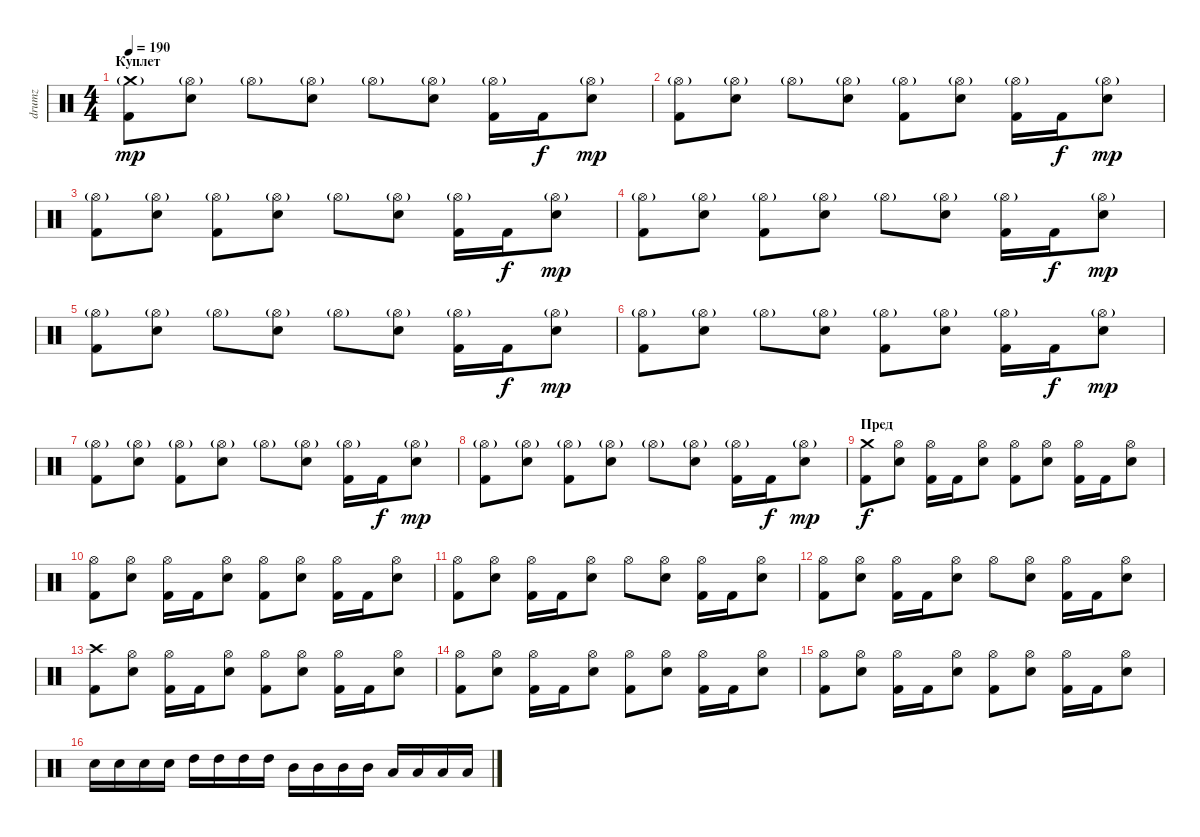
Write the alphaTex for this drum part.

\track ("drumz" "drumz") {instrument percussion}
\staff {score}
\articulation defaults
\ts (4 4)
\section ("" "Куплет")
\tempo 190
\clef neutral
\ks c
("Crash medium (hit)"{g} "Kick (hit) 2").8{dy mp} ("Hi-Hat (open)"{g} "Electric Snare (hit)").8 "Hi-Hat (open)"{g}.8 ("Hi-Hat (open)"{g} "Electric Snare (hit)").8 "Hi-Hat (open)"{g}.8 ("Hi-Hat (open)"{g} "Electric Snare (hit)").8 ("Hi-Hat (open)"{g} "Kick (hit) 2").16 "Kick (hit) 2".16{dy f} ("Hi-Hat (open)"{g} "Electric Snare (hit)").8{dy mp} |
("Hi-Hat (open)"{g} "Kick (hit) 2").8 ("Hi-Hat (open)"{g} "Electric Snare (hit)").8 "Hi-Hat (open)"{g}.8 ("Hi-Hat (open)"{g} "Electric Snare (hit)").8 ("Hi-Hat (open)"{g} "Kick (hit) 2").8 ("Hi-Hat (open)"{g} "Electric Snare (hit)").8 ("Hi-Hat (open)"{g} "Kick (hit) 2").16 "Kick (hit) 2".16{dy f} ("Hi-Hat (open)"{g} "Electric Snare (hit)").8{dy mp} |
("Hi-Hat (open)"{g} "Kick (hit) 2").8 ("Hi-Hat (open)"{g} "Electric Snare (hit)").8 ("Hi-Hat (open)"{g} "Kick (hit) 2").8 ("Hi-Hat (open)"{g} "Electric Snare (hit)").8 "Hi-Hat (open)"{g}.8 ("Hi-Hat (open)"{g} "Electric Snare (hit)").8 ("Hi-Hat (open)"{g} "Kick (hit) 2").16 "Kick (hit) 2".16{dy f} ("Hi-Hat (open)"{g} "Electric Snare (hit)").8{dy mp} |
("Hi-Hat (open)"{g} "Kick (hit) 2").8 ("Hi-Hat (open)"{g} "Electric Snare (hit)").8 ("Hi-Hat (open)"{g} "Kick (hit) 2").8 ("Hi-Hat (open)"{g} "Electric Snare (hit)").8 "Hi-Hat (open)"{g}.8 ("Hi-Hat (open)"{g} "Electric Snare (hit)").8 ("Hi-Hat (open)"{g} "Kick (hit) 2").16 "Kick (hit) 2".16{dy f} ("Hi-Hat (open)"{g} "Electric Snare (hit)").8{dy mp} |
("Hi-Hat (open)"{g} "Kick (hit) 2").8 ("Hi-Hat (open)"{g} "Electric Snare (hit)").8 "Hi-Hat (open)"{g}.8 ("Hi-Hat (open)"{g} "Electric Snare (hit)").8 "Hi-Hat (open)"{g}.8 ("Hi-Hat (open)"{g} "Electric Snare (hit)").8 ("Hi-Hat (open)"{g} "Kick (hit) 2").16 "Kick (hit) 2".16{dy f} ("Hi-Hat (open)"{g} "Electric Snare (hit)").8{dy mp} |
("Hi-Hat (open)"{g} "Kick (hit) 2").8 ("Hi-Hat (open)"{g} "Electric Snare (hit)").8 "Hi-Hat (open)"{g}.8 ("Hi-Hat (open)"{g} "Electric Snare (hit)").8 ("Hi-Hat (open)"{g} "Kick (hit) 2").8 ("Hi-Hat (open)"{g} "Electric Snare (hit)").8 ("Hi-Hat (open)"{g} "Kick (hit) 2").16 "Kick (hit) 2".16{dy f} ("Hi-Hat (open)"{g} "Electric Snare (hit)").8{dy mp} |
("Hi-Hat (open)"{g} "Kick (hit) 2").8 ("Hi-Hat (open)"{g} "Electric Snare (hit)").8 ("Hi-Hat (open)"{g} "Kick (hit) 2").8 ("Hi-Hat (open)"{g} "Electric Snare (hit)").8 "Hi-Hat (open)"{g}.8 ("Hi-Hat (open)"{g} "Electric Snare (hit)").8 ("Hi-Hat (open)"{g} "Kick (hit) 2").16 "Kick (hit) 2".16{dy f} ("Hi-Hat (open)"{g} "Electric Snare (hit)").8{dy mp} |
("Hi-Hat (open)"{g} "Kick (hit) 2").8 ("Hi-Hat (open)"{g} "Electric Snare (hit)").8 ("Hi-Hat (open)"{g} "Kick (hit) 2").8 ("Hi-Hat (open)"{g} "Electric Snare (hit)").8 "Hi-Hat (open)"{g}.8 ("Hi-Hat (open)"{g} "Electric Snare (hit)").8 ("Hi-Hat (open)"{g} "Kick (hit) 2").16 "Kick (hit) 2".16{dy f} ("Hi-Hat (open)"{g} "Electric Snare (hit)").8{dy mp} |
\section ("" "Пред")
("Crash medium (hit)" "Kick (hit) 2").8{dy f} ("Hi-Hat (open)" "Electric Snare (hit)").8 ("Hi-Hat (open)" "Kick (hit) 2").16 "Kick (hit) 2".16 ("Hi-Hat (open)" "Electric Snare (hit)").8 ("Hi-Hat (open)" "Kick (hit) 2").8 ("Hi-Hat (open)" "Electric Snare (hit)").8 ("Hi-Hat (open)" "Kick (hit) 2").16 "Kick (hit) 2".16 ("Hi-Hat (open)" "Electric Snare (hit)").8 |
("Hi-Hat (open)" "Kick (hit) 2").8 ("Hi-Hat (open)" "Electric Snare (hit)").8 ("Hi-Hat (open)" "Kick (hit) 2").16 "Kick (hit) 2".16 ("Hi-Hat (open)" "Electric Snare (hit)").8 ("Hi-Hat (open)" "Kick (hit) 2").8 ("Hi-Hat (open)" "Electric Snare (hit)").8 ("Hi-Hat (open)" "Kick (hit) 2").16 "Kick (hit) 2".16 ("Hi-Hat (open)" "Electric Snare (hit)").8 |
("Hi-Hat (open)" "Kick (hit) 2").8 ("Hi-Hat (open)" "Electric Snare (hit)").8 ("Hi-Hat (open)" "Kick (hit) 2").16 "Kick (hit) 2".16 ("Hi-Hat (open)" "Electric Snare (hit)").8 "Hi-Hat (open)".8 ("Hi-Hat (open)" "Electric Snare (hit)").8 ("Hi-Hat (open)" "Kick (hit) 2").16 "Kick (hit) 2".16 ("Hi-Hat (open)" "Electric Snare (hit)").8 |
("Hi-Hat (open)" "Kick (hit) 2").8 ("Hi-Hat (open)" "Electric Snare (hit)").8 ("Hi-Hat (open)" "Kick (hit) 2").16 "Kick (hit) 2".16 ("Hi-Hat (open)" "Electric Snare (hit)").8 "Hi-Hat (open)".8 ("Hi-Hat (open)" "Electric Snare (hit)").8 ("Hi-Hat (open)" "Kick (hit) 2").16 "Kick (hit) 2".16 ("Hi-Hat (open)" "Electric Snare (hit)").8 |
("Crash high (hit)" "Kick (hit) 2").8 ("Hi-Hat (open)" "Electric Snare (hit)").8 ("Hi-Hat (open)" "Kick (hit) 2").16 "Kick (hit) 2".16 ("Hi-Hat (open)" "Electric Snare (hit)").8 ("Hi-Hat (open)" "Kick (hit) 2").8 ("Hi-Hat (open)" "Electric Snare (hit)").8 ("Hi-Hat (open)" "Kick (hit) 2").16 "Kick (hit) 2".16 ("Hi-Hat (open)" "Electric Snare (hit)").8 |
("Hi-Hat (open)" "Kick (hit) 2").8 ("Hi-Hat (open)" "Electric Snare (hit)").8 ("Hi-Hat (open)" "Kick (hit) 2").16 "Kick (hit) 2".16 ("Hi-Hat (open)" "Electric Snare (hit)").8 ("Hi-Hat (open)" "Kick (hit) 2").8 ("Hi-Hat (open)" "Electric Snare (hit)").8 ("Hi-Hat (open)" "Kick (hit) 2").16 "Kick (hit) 2".16 ("Hi-Hat (open)" "Electric Snare (hit)").8 |
("Hi-Hat (open)" "Kick (hit) 2").8 ("Hi-Hat (open)" "Electric Snare (hit)").8 ("Hi-Hat (open)" "Kick (hit) 2").16 "Kick (hit) 2".16 ("Hi-Hat (open)" "Electric Snare (hit)").8 ("Hi-Hat (open)" "Kick (hit) 2").8 ("Hi-Hat (open)" "Electric Snare (hit)").8 ("Hi-Hat (open)" "Kick (hit) 2").16 "Kick (hit) 2".16 ("Hi-Hat (open)" "Electric Snare (hit)").8 |
"Electric Snare (hit)".16 "Electric Snare (hit)".16 "Electric Snare (hit)".16 "Electric Snare (hit)".16 "High Tom (hit)".16 "High Tom (hit)".16 "High Tom (hit)".16 "High Tom (hit)".16 "Mid Tom (hit)".16 "Mid Tom (hit)".16 "Mid Tom (hit)".16 "Mid Tom (hit)".16 "Low Tom (hit)".16 "Low Tom (hit)".16 "Low Tom (hit)".16 "Low Tom (hit)".16
